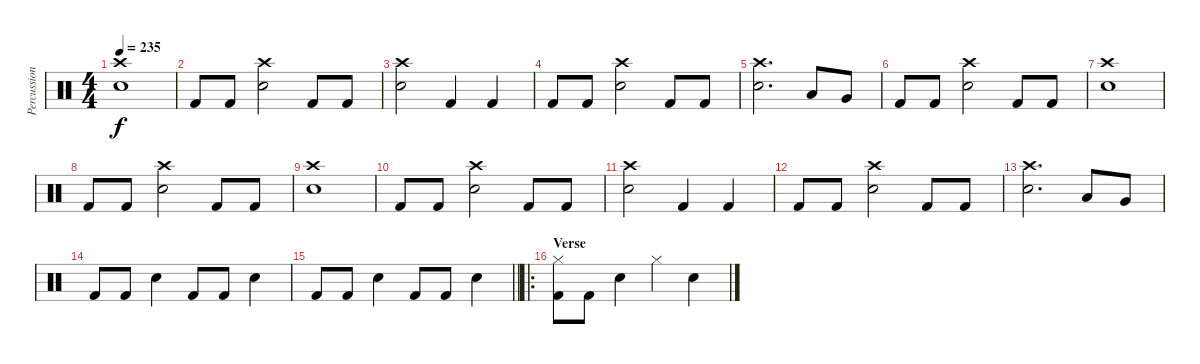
\track ("Percussion" "Percussion") {instrument percussion}
\staff {score}
\articulation defaults
\ts (4 4)
\tempo 235
\clef neutral
\ks c
("Electric Snare (hit)" "Crash high (hit)").1{dy f} |
"Kick (hit) 2".8 "Kick (hit) 2".8 ("Electric Snare (hit)" "Crash high (hit)").2 "Kick (hit) 2".8 "Kick (hit) 2".8 |
("Electric Snare (hit)" "Crash high (hit)").2 "Kick (hit) 2".4 "Kick (hit) 2".4 |
"Kick (hit) 2".8 "Kick (hit) 2".8 ("Crash high (hit)" "Electric Snare (hit)").2 "Kick (hit) 2".8 "Kick (hit) 2".8 |
("Crash high (hit)" "Electric Snare (hit)").2{d} "Low Tom (hit)".8 "Very Low Tom (hit)".8 |
"Kick (hit) 2".8 "Kick (hit) 2".8 ("Crash high (hit)" "Electric Snare (hit)").2 "Kick (hit) 2".8 "Kick (hit) 2".8 |
("Crash high (hit)" "Electric Snare (hit)").1 |
"Kick (hit) 2".8 "Kick (hit) 2".8 ("Electric Snare (hit)" "Crash high (hit)").2 "Kick (hit) 2".8 "Kick (hit) 2".8 |
("Electric Snare (hit)" "Crash high (hit)").1 |
"Kick (hit) 2".8 "Kick (hit) 2".8 ("Electric Snare (hit)" "Crash high (hit)").2 "Kick (hit) 2".8 "Kick (hit) 2".8 |
("Electric Snare (hit)" "Crash high (hit)").2 "Kick (hit) 2".4 "Kick (hit) 2".4 |
"Kick (hit) 2".8 "Kick (hit) 2".8 ("Crash high (hit)" "Electric Snare (hit)").2 "Kick (hit) 2".8 "Kick (hit) 2".8 |
("Crash high (hit)" "Electric Snare (hit)").2{d} "Low Tom (hit)".8 "Very Low Tom (hit)".8 |
"Kick (hit) 2".8 "Kick (hit) 2".8 "Electric Snare (hit)".4 "Kick (hit) 2".8 "Kick (hit) 2".8 "Electric Snare (hit)".4 |
\barLineRight lightlight "Kick (hit) 2".8 "Kick (hit) 2".8 "Electric Snare (hit)".4 "Kick (hit) 2".8 "Kick (hit) 2".8 "Electric Snare (hit)".4
|
\ro
\section ("" "Verse")
("Hi-Hat (closed)" "Kick (hit) 2").8 "Kick (hit) 2".8 "Electric Snare (hit)".4 "Hi-Hat (closed)".4 "Electric Snare (hit)".4
